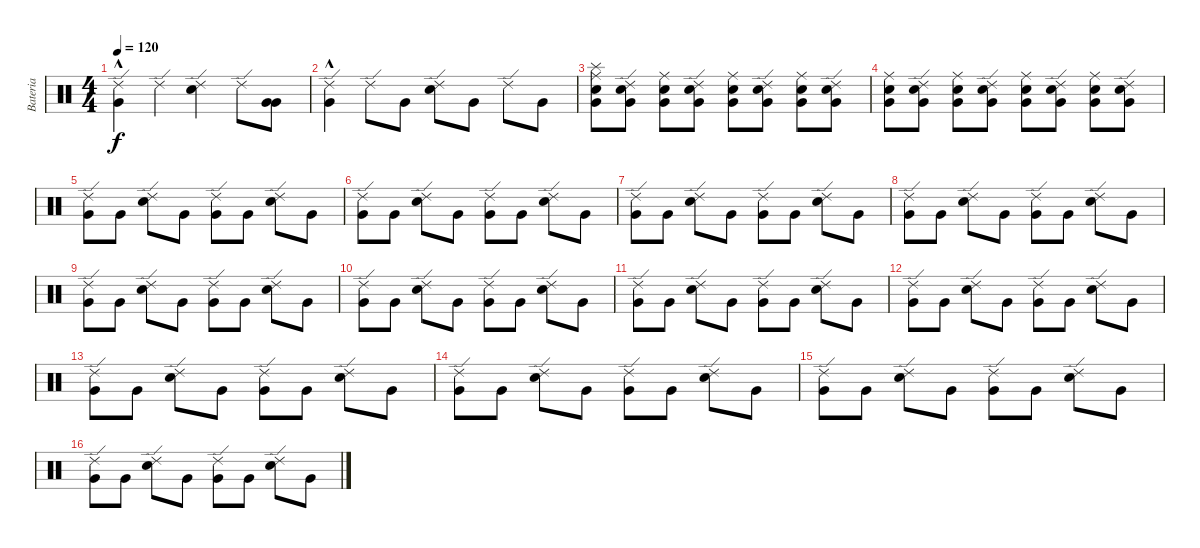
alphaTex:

\track ("Bateria" "Bateria") {instrument percussion}
\staff {score}
\articulation defaults
\ts (4 4)
\tempo 120
\clef neutral
\ks c
("Ride (edge) 2" "Very Low Tom (hit)"{hac}).4{dy f} "Ride (edge) 2".4 ("Ride (edge) 2" "Snare (hit) 2").4 "Ride (edge) 2".8 ("Very Low Tom (hit)" "Very Low Tom (hit)").8 |
("Ride (edge) 2" "Very Low Tom (hit)"{hac}).4 "Ride (edge) 2".8 "Very Low Tom (hit)".8 ("Snare (hit) 2" "Ride (edge) 2").8 "Very Low Tom (hit)".8 "Ride (edge) 2".8 "Very Low Tom (hit)".8 |
("Splash (hit)" "Ride (middle)" "Snare (hit) 2" "Very Low Tom (hit)").8 ("Ride (edge) 2" "Snare (hit) 2" "Very Low Tom (hit)").8 ("Ride (middle)" "Snare (hit) 2" "Very Low Tom (hit)").8 ("Ride (edge) 2" "Snare (hit) 2" "Very Low Tom (hit)").8 ("Ride (middle)" "Snare (hit) 2" "Very Low Tom (hit)").8 ("Ride (edge) 2" "Snare (hit) 2" "Very Low Tom (hit)").8 ("Ride (middle)" "Snare (hit) 2" "Very Low Tom (hit)").8 ("Ride (edge) 2" "Snare (hit) 2" "Very Low Tom (hit)").8 |
("Ride (middle)" "Snare (hit) 2" "Very Low Tom (hit)").8 ("Ride (edge) 2" "Snare (hit) 2" "Very Low Tom (hit)").8 ("Ride (middle)" "Snare (hit) 2" "Very Low Tom (hit)").8 ("Ride (edge) 2" "Snare (hit) 2" "Very Low Tom (hit)").8 ("Ride (middle)" "Snare (hit) 2" "Very Low Tom (hit)").8 ("Ride (edge) 2" "Snare (hit) 2" "Very Low Tom (hit)").8 ("Ride (middle)" "Snare (hit) 2" "Very Low Tom (hit)").8 ("Ride (edge) 2" "Snare (hit) 2" "Very Low Tom (hit)").8 |
("Ride (edge) 2" "Very Low Tom (hit)").8 "Very Low Tom (hit)".8 ("Snare (hit) 2" "Ride (edge) 2").8 "Very Low Tom (hit)".8 ("Very Low Tom (hit)" "Ride (edge) 2").8 "Very Low Tom (hit)".8 ("Snare (hit) 2" "Ride (edge) 2").8 "Very Low Tom (hit)".8 |
("Ride (edge) 2" "Very Low Tom (hit)").8 "Very Low Tom (hit)".8 ("Snare (hit) 2" "Ride (edge) 2").8 "Very Low Tom (hit)".8 ("Very Low Tom (hit)" "Ride (edge) 2").8 "Very Low Tom (hit)".8 ("Snare (hit) 2" "Ride (edge) 2").8 "Very Low Tom (hit)".8 |
("Ride (edge) 2" "Very Low Tom (hit)").8 "Very Low Tom (hit)".8 ("Snare (hit) 2" "Ride (edge) 2").8 "Very Low Tom (hit)".8 ("Very Low Tom (hit)" "Ride (edge) 2").8 "Very Low Tom (hit)".8 ("Snare (hit) 2" "Ride (edge) 2").8 "Very Low Tom (hit)".8 |
("Ride (edge) 2" "Very Low Tom (hit)").8 "Very Low Tom (hit)".8 ("Snare (hit) 2" "Ride (edge) 2").8 "Very Low Tom (hit)".8 ("Very Low Tom (hit)" "Ride (edge) 2").8 "Very Low Tom (hit)".8 ("Snare (hit) 2" "Ride (edge) 2").8 "Very Low Tom (hit)".8 |
("Ride (edge) 2" "Very Low Tom (hit)").8 "Very Low Tom (hit)".8 ("Snare (hit) 2" "Ride (edge) 2").8 "Very Low Tom (hit)".8 ("Very Low Tom (hit)" "Ride (edge) 2").8 "Very Low Tom (hit)".8 ("Snare (hit) 2" "Ride (edge) 2").8 "Very Low Tom (hit)".8 |
("Ride (edge) 2" "Very Low Tom (hit)").8 "Very Low Tom (hit)".8 ("Snare (hit) 2" "Ride (edge) 2").8 "Very Low Tom (hit)".8 ("Very Low Tom (hit)" "Ride (edge) 2").8 "Very Low Tom (hit)".8 ("Snare (hit) 2" "Ride (edge) 2").8 "Very Low Tom (hit)".8 |
("Ride (edge) 2" "Very Low Tom (hit)").8 "Very Low Tom (hit)".8 ("Snare (hit) 2" "Ride (edge) 2").8 "Very Low Tom (hit)".8 ("Very Low Tom (hit)" "Ride (edge) 2").8 "Very Low Tom (hit)".8 ("Snare (hit) 2" "Ride (edge) 2").8 "Very Low Tom (hit)".8 |
("Ride (edge) 2" "Very Low Tom (hit)").8 "Very Low Tom (hit)".8 ("Snare (hit) 2" "Ride (edge) 2").8 "Very Low Tom (hit)".8 ("Very Low Tom (hit)" "Ride (edge) 2").8 "Very Low Tom (hit)".8 ("Snare (hit) 2" "Ride (edge) 2").8 "Very Low Tom (hit)".8 |
("Ride (edge) 2" "Very Low Tom (hit)").8 "Very Low Tom (hit)".8 ("Snare (hit) 2" "Ride (edge) 2").8 "Very Low Tom (hit)".8 ("Very Low Tom (hit)" "Ride (edge) 2").8 "Very Low Tom (hit)".8 ("Snare (hit) 2" "Ride (edge) 2").8 "Very Low Tom (hit)".8 |
("Ride (edge) 2" "Very Low Tom (hit)").8 "Very Low Tom (hit)".8 ("Snare (hit) 2" "Ride (edge) 2").8 "Very Low Tom (hit)".8 ("Very Low Tom (hit)" "Ride (edge) 2").8 "Very Low Tom (hit)".8 ("Snare (hit) 2" "Ride (edge) 2").8 "Very Low Tom (hit)".8 |
("Ride (edge) 2" "Very Low Tom (hit)").8 "Very Low Tom (hit)".8 ("Snare (hit) 2" "Ride (edge) 2").8 "Very Low Tom (hit)".8 ("Very Low Tom (hit)" "Ride (edge) 2").8 "Very Low Tom (hit)".8 ("Snare (hit) 2" "Ride (edge) 2").8 "Very Low Tom (hit)".8 |
("Ride (edge) 2" "Very Low Tom (hit)").8 "Very Low Tom (hit)".8 ("Snare (hit) 2" "Ride (edge) 2").8 "Very Low Tom (hit)".8 ("Very Low Tom (hit)" "Ride (edge) 2").8 "Very Low Tom (hit)".8 ("Snare (hit) 2" "Ride (edge) 2").8 "Very Low Tom (hit)".8
